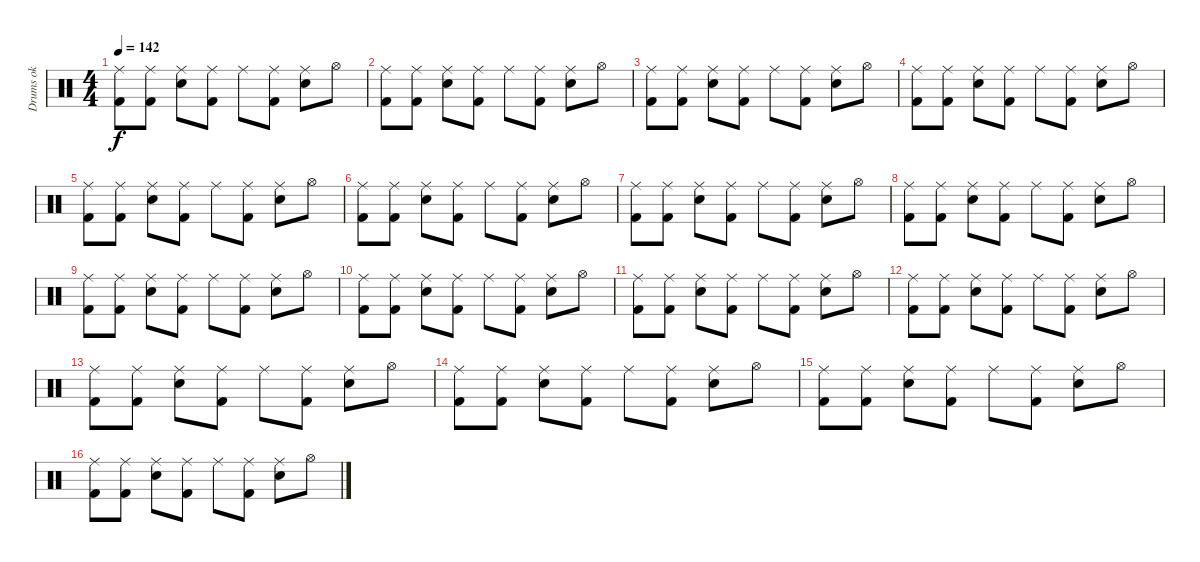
\track ("Drums ok" "Drums ok") {instrument percussion}
\staff {score}
\articulation defaults
\ts (4 4)
\tempo 142
\clef neutral
\ks c
("Ride (middle)" "Kick (hit) 2").8{dy f} ("Ride (middle)" "Kick (hit) 2").8 ("Ride (middle)" "Electric Snare (hit)").8 ("Ride (middle)" "Kick (hit) 2").8 "Ride (middle)".8 ("Ride (middle)" "Kick (hit) 2").8 ("Ride (middle)" "Electric Snare (hit)").8 "Hi-Hat (open)".8 |
("Ride (middle)" "Kick (hit) 2").8 ("Ride (middle)" "Kick (hit) 2").8 ("Ride (middle)" "Electric Snare (hit)").8 ("Ride (middle)" "Kick (hit) 2").8 "Ride (middle)".8 ("Ride (middle)" "Kick (hit) 2").8 ("Ride (middle)" "Electric Snare (hit)").8 "Hi-Hat (open)".8 |
("Ride (middle)" "Kick (hit) 2").8 ("Ride (middle)" "Kick (hit) 2").8 ("Ride (middle)" "Electric Snare (hit)").8 ("Ride (middle)" "Kick (hit) 2").8 "Ride (middle)".8 ("Ride (middle)" "Kick (hit) 2").8 ("Ride (middle)" "Electric Snare (hit)").8 "Hi-Hat (open)".8 |
("Ride (middle)" "Kick (hit) 2").8 ("Ride (middle)" "Kick (hit) 2").8 ("Ride (middle)" "Electric Snare (hit)").8 ("Ride (middle)" "Kick (hit) 2").8 "Ride (middle)".8 ("Ride (middle)" "Kick (hit) 2").8 ("Ride (middle)" "Electric Snare (hit)").8 "Hi-Hat (open)".8 |
("Ride (middle)" "Kick (hit) 2").8 ("Ride (middle)" "Kick (hit) 2").8 ("Ride (middle)" "Electric Snare (hit)").8 ("Ride (middle)" "Kick (hit) 2").8 "Ride (middle)".8 ("Ride (middle)" "Kick (hit) 2").8 ("Ride (middle)" "Electric Snare (hit)").8 "Hi-Hat (open)".8 |
("Ride (middle)" "Kick (hit) 2").8 ("Ride (middle)" "Kick (hit) 2").8 ("Ride (middle)" "Electric Snare (hit)").8 ("Ride (middle)" "Kick (hit) 2").8 "Ride (middle)".8 ("Ride (middle)" "Kick (hit) 2").8 ("Ride (middle)" "Electric Snare (hit)").8 "Hi-Hat (open)".8 |
("Ride (middle)" "Kick (hit) 2").8 ("Ride (middle)" "Kick (hit) 2").8 ("Ride (middle)" "Electric Snare (hit)").8 ("Ride (middle)" "Kick (hit) 2").8 "Ride (middle)".8 ("Ride (middle)" "Kick (hit) 2").8 ("Ride (middle)" "Electric Snare (hit)").8 "Hi-Hat (open)".8 |
("Ride (middle)" "Kick (hit) 2").8 ("Ride (middle)" "Kick (hit) 2").8 ("Ride (middle)" "Electric Snare (hit)").8 ("Ride (middle)" "Kick (hit) 2").8 "Ride (middle)".8 ("Ride (middle)" "Kick (hit) 2").8 ("Ride (middle)" "Electric Snare (hit)").8 "Hi-Hat (open)".8 |
("Ride (middle)" "Kick (hit) 2").8 ("Ride (middle)" "Kick (hit) 2").8 ("Ride (middle)" "Electric Snare (hit)").8 ("Ride (middle)" "Kick (hit) 2").8 "Ride (middle)".8 ("Ride (middle)" "Kick (hit) 2").8 ("Ride (middle)" "Electric Snare (hit)").8 "Hi-Hat (open)".8 |
("Ride (middle)" "Kick (hit) 2").8 ("Ride (middle)" "Kick (hit) 2").8 ("Ride (middle)" "Electric Snare (hit)").8 ("Ride (middle)" "Kick (hit) 2").8 "Ride (middle)".8 ("Ride (middle)" "Kick (hit) 2").8 ("Ride (middle)" "Electric Snare (hit)").8 "Hi-Hat (open)".8 |
("Ride (middle)" "Kick (hit) 2").8 ("Ride (middle)" "Kick (hit) 2").8 ("Ride (middle)" "Electric Snare (hit)").8 ("Ride (middle)" "Kick (hit) 2").8 "Ride (middle)".8 ("Ride (middle)" "Kick (hit) 2").8 ("Ride (middle)" "Electric Snare (hit)").8 "Hi-Hat (open)".8 |
("Ride (middle)" "Kick (hit) 2").8 ("Ride (middle)" "Kick (hit) 2").8 ("Ride (middle)" "Electric Snare (hit)").8 ("Ride (middle)" "Kick (hit) 2").8 "Ride (middle)".8 ("Ride (middle)" "Kick (hit) 2").8 ("Ride (middle)" "Electric Snare (hit)").8 "Hi-Hat (open)".8 |
("Ride (middle)" "Kick (hit) 2").8 ("Ride (middle)" "Kick (hit) 2").8 ("Ride (middle)" "Electric Snare (hit)").8 ("Ride (middle)" "Kick (hit) 2").8 "Ride (middle)".8 ("Ride (middle)" "Kick (hit) 2").8 ("Ride (middle)" "Electric Snare (hit)").8 "Hi-Hat (open)".8 |
("Ride (middle)" "Kick (hit) 2").8 ("Ride (middle)" "Kick (hit) 2").8 ("Ride (middle)" "Electric Snare (hit)").8 ("Ride (middle)" "Kick (hit) 2").8 "Ride (middle)".8 ("Ride (middle)" "Kick (hit) 2").8 ("Ride (middle)" "Electric Snare (hit)").8 "Hi-Hat (open)".8 |
("Ride (middle)" "Kick (hit) 2").8 ("Ride (middle)" "Kick (hit) 2").8 ("Ride (middle)" "Electric Snare (hit)").8 ("Ride (middle)" "Kick (hit) 2").8 "Ride (middle)".8 ("Ride (middle)" "Kick (hit) 2").8 ("Ride (middle)" "Electric Snare (hit)").8 "Hi-Hat (open)".8 |
("Ride (middle)" "Kick (hit) 2").8 ("Ride (middle)" "Kick (hit) 2").8 ("Ride (middle)" "Electric Snare (hit)").8 ("Ride (middle)" "Kick (hit) 2").8 "Ride (middle)".8 ("Ride (middle)" "Kick (hit) 2").8 ("Ride (middle)" "Electric Snare (hit)").8 "Hi-Hat (open)".8
